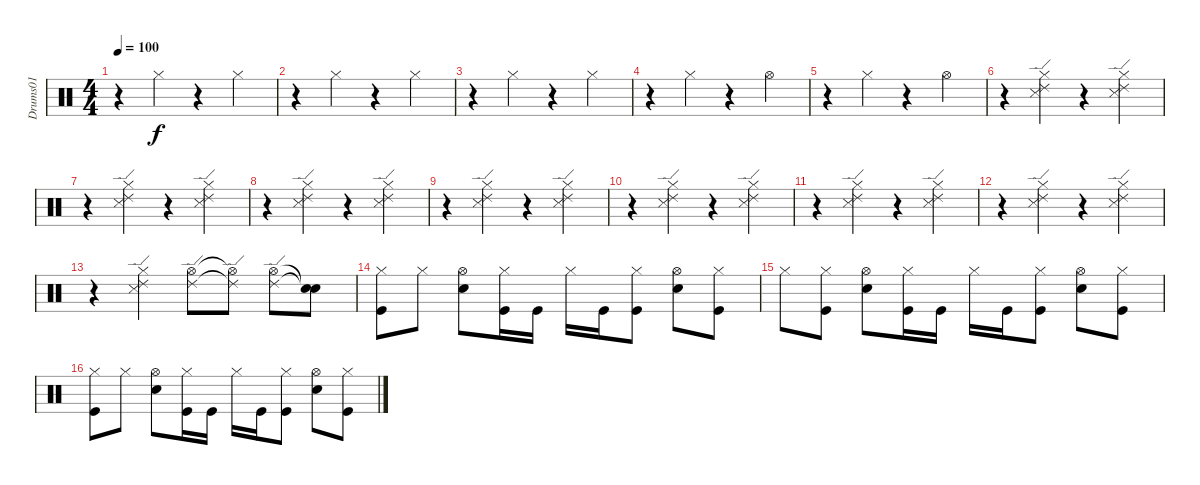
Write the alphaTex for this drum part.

\track ("Drums01" "Drums01") {instrument percussion}
\staff {score}
\articulation defaults
\ts (4 4)
\tempo 100
\clef neutral
\ks c
r.4{dy f} "Hi-Hat (closed)".4 r.4 "Hi-Hat (closed)".4 |
r.4 "Hi-Hat (closed)".4 r.4 "Hi-Hat (closed)".4 |
r.4 "Hi-Hat (closed)".4 r.4 "Hi-Hat (closed)".4 |
r.4 "Hi-Hat (closed)".4 r.4 "Hi-Hat (open)".4 |
r.4 "Hi-Hat (closed)".4 r.4 "Hi-Hat (open)".4 |
r.4 ("Hi-Hat (closed)" "Ride (edge) 2" "Snare (side stick) 3").4 r.4 ("Hi-Hat (closed)" "Ride (edge) 2" "Snare (side stick) 3").4 |
r.4 ("Hi-Hat (closed)" "Ride (edge) 2" "Snare (side stick) 3").4 r.4 ("Hi-Hat (closed)" "Ride (edge) 2" "Snare (side stick) 3").4 |
r.4 ("Hi-Hat (closed)" "Ride (edge) 2" "Snare (side stick) 3").4 r.4 ("Hi-Hat (closed)" "Ride (edge) 2" "Snare (side stick) 3").4 |
r.4 ("Hi-Hat (closed)" "Ride (edge) 2" "Snare (side stick) 3").4 r.4 ("Hi-Hat (closed)" "Ride (edge) 2" "Snare (side stick) 3").4 |
r.4 ("Hi-Hat (closed)" "Ride (edge) 2" "Snare (side stick) 3").4 r.4 ("Hi-Hat (closed)" "Ride (edge) 2" "Snare (side stick) 3").4 |
r.4 ("Hi-Hat (closed)" "Ride (edge) 2" "Snare (side stick) 3").4 r.4 ("Hi-Hat (closed)" "Ride (edge) 2" "Snare (side stick) 3").4 |
r.4 ("Hi-Hat (closed)" "Ride (edge) 2" "Snare (side stick) 3").4 r.4 ("Hi-Hat (closed)" "Ride (edge) 2" "Snare (side stick) 3").4 |
r.4 ("Hi-Hat (closed)" "Ride (edge) 2" "Snare (side stick) 3").4 ("Hi-Hat (open)" "Ride (edge) 2").8 ("Hi-Hat (open)"{t} "Ride (edge) 2"{t}).8 ("Hi-Hat (open)" "Ride (edge) 2").8 ("Snare (hit)"{t} "Snare (hit)"{t}).8 |
("Hi-Hat (closed)" "Kick (hit)").8 "Hi-Hat (closed)".8 ("Hi-Hat (open)" "Snare (hit) 2").8 ("Hi-Hat (closed)" "Kick (hit)").16 "Kick (hit)".16 "Hi-Hat (closed)".16 "Kick (hit)".16 ("Hi-Hat (closed)" "Kick (hit)").8 ("Hi-Hat (open)" "Snare (hit) 2").8 ("Hi-Hat (closed)" "Kick (hit)").8 |
"Hi-Hat (closed)".8 ("Hi-Hat (closed)" "Kick (hit)").8 ("Hi-Hat (open)" "Snare (hit) 2").8 ("Hi-Hat (closed)" "Kick (hit)").16 "Kick (hit)".16 "Hi-Hat (closed)".16 "Kick (hit)".16 ("Hi-Hat (closed)" "Kick (hit)").8 ("Hi-Hat (open)" "Snare (hit) 2").8 ("Hi-Hat (closed)" "Kick (hit)").8 |
("Hi-Hat (closed)" "Kick (hit)").8 "Hi-Hat (closed)".8 ("Hi-Hat (open)" "Snare (hit) 2").8 ("Hi-Hat (closed)" "Kick (hit)").16 "Kick (hit)".16 "Hi-Hat (closed)".16 "Kick (hit)".16 ("Hi-Hat (closed)" "Kick (hit)").8 ("Hi-Hat (open)" "Snare (hit) 2").8 ("Hi-Hat (closed)" "Kick (hit)").8
